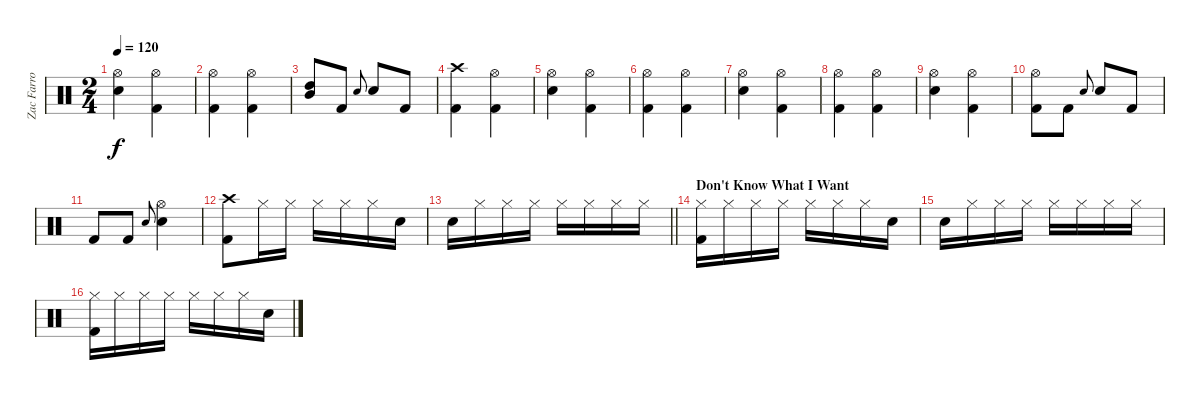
\track ("Zac Farro" "Zac Farro") {instrument percussion}
\staff {score}
\articulation defaults
\ts (2 4)
\tempo 120
\clef neutral
\ks c
("Hi-Hat (open)" "Electric Snare (hit)").4{dy f} ("Kick (hit) 2" "Hi-Hat (open)").4 |
("Kick (hit) 2" "Hi-Hat (open)").4 ("Kick (hit) 2" "Hi-Hat (open)").4 |
("Mid Tom (hit)" "High Tom (hit)").8 "Kick (hit) 2".8 "Electric Snare (hit)".8{gr onbeat} "Electric Snare (hit)".8 "Kick (hit) 2".8 |
("Crash high (hit)" "Kick (hit) 2").4 ("Kick (hit) 2" "Hi-Hat (open)").4 |
("Hi-Hat (open)" "Electric Snare (hit)").4 ("Hi-Hat (open)" "Kick (hit) 2").4 |
("Hi-Hat (open)" "Kick (hit) 2").4 ("Hi-Hat (open)" "Kick (hit) 2").4 |
("Hi-Hat (open)" "Electric Snare (hit)").4 ("Kick (hit) 2" "Hi-Hat (open)").4 |
("Kick (hit) 2" "Hi-Hat (open)").4 ("Kick (hit) 2" "Hi-Hat (open)").4 |
("Hi-Hat (open)" "Electric Snare (hit)").4 ("Kick (hit) 2" "Hi-Hat (open)").4 |
("Kick (hit) 2" "Hi-Hat (open)").8 "Kick (hit) 2".8 "Electric Snare (hit)".8{gr onbeat} "Electric Snare (hit)".8 "Kick (hit) 2".8 |
"Kick (hit) 2".8 "Kick (hit) 2".8 "Electric Snare (hit)".8{gr onbeat} ("Electric Snare (hit)" "Hi-Hat (open)").4 |
("Kick (hit) 2" "Crash high (hit)").8 "Hi-Hat (closed)".16 "Hi-Hat (closed)".16 "Hi-Hat (closed)".16 "Hi-Hat (closed)".16 "Hi-Hat (closed)".16 "Electric Snare (hit)".16 |
\barLineRight lightlight "Electric Snare (hit)".16 "Hi-Hat (closed)".16 "Hi-Hat (closed)".16 "Hi-Hat (closed)".16 "Hi-Hat (closed)".16 "Hi-Hat (closed)".16 "Hi-Hat (closed)".16 "Hi-Hat (closed)".16
|
\section ("" "Don't Know What I Want")
("Hi-Hat (closed)" "Kick (hit) 2").16 "Hi-Hat (closed)".16 "Hi-Hat (closed)".16 "Hi-Hat (closed)".16 "Hi-Hat (closed)".16 "Hi-Hat (closed)".16 "Hi-Hat (closed)".16 "Electric Snare (hit)".16 |
"Electric Snare (hit)".16 "Hi-Hat (closed)".16 "Hi-Hat (closed)".16 "Hi-Hat (closed)".16 "Hi-Hat (closed)".16 "Hi-Hat (closed)".16 "Hi-Hat (closed)".16 "Hi-Hat (closed)".16 |
("Hi-Hat (closed)" "Kick (hit) 2").16 "Hi-Hat (closed)".16 "Hi-Hat (closed)".16 "Hi-Hat (closed)".16 "Hi-Hat (closed)".16 "Hi-Hat (closed)".16 "Hi-Hat (closed)".16 "Electric Snare (hit)".16
